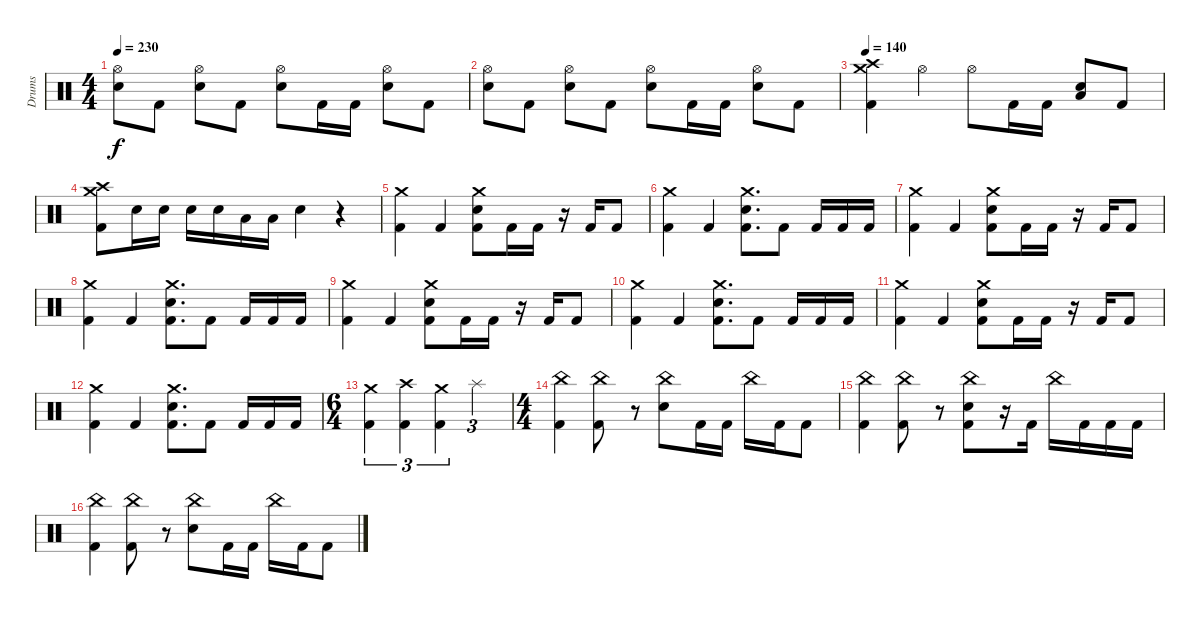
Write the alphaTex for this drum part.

\track ("Drums" "Drums") {instrument percussion}
\staff {score}
\articulation defaults
\ts (4 4)
\tempo 230
\clef neutral
\ks c
("Hi-Hat (open)" "Electric Snare (hit)").8{dy f} "Kick (hit) 2".8 ("Hi-Hat (open)" "Electric Snare (hit)").8 "Kick (hit) 2".8 ("Hi-Hat (open)" "Electric Snare (hit)").8 "Kick (hit) 2".16 "Kick (hit) 2".16 ("Hi-Hat (open)" "Electric Snare (hit)").8 "Kick (hit) 2".8 |
("Hi-Hat (open)" "Electric Snare (hit)").8 "Kick (hit) 2".8 ("Hi-Hat (open)" "Electric Snare (hit)").8 "Kick (hit) 2".8 ("Hi-Hat (open)" "Electric Snare (hit)").8 "Kick (hit) 2".16 "Kick (hit) 2".16 ("Hi-Hat (open)" "Electric Snare (hit)").8 "Kick (hit) 2".8 |
\tempo 140
("Crash medium (hit)" "Crash high (hit)" "Kick (hit) 2").4 "Hi-Hat (open)".4 "Hi-Hat (open)".8 "Kick (hit) 2".16 "Kick (hit) 2".16 ("Low Tom (hit)" "Electric Snare (hit)").8 "Kick (hit) 2".8 |
("Crash medium (hit)" "Crash high (hit)" "Kick (hit) 2").8 "Electric Snare (hit)".16 "Electric Snare (hit)".16 "Electric Snare (hit)".16 "Electric Snare (hit)".16 "Low Tom (hit)".16 "Low Tom (hit)".16 "Electric Snare (hit)".4 r.4 |
("Crash medium (hit)" "Kick (hit) 2").4 "Kick (hit) 2".4 ("Crash medium (hit)" "Electric Snare (hit)" "Kick (hit) 2").8 "Kick (hit) 2".16 "Kick (hit) 2".16 r.16 "Kick (hit) 2".16 "Kick (hit) 2".8 |
("Crash medium (hit)" "Kick (hit) 2").4 "Kick (hit) 2".4 ("Crash medium (hit)" "Electric Snare (hit)" "Kick (hit) 2").8{d} "Kick (hit) 2".8 "Kick (hit) 2".16 "Kick (hit) 2".16 "Kick (hit) 2".16 |
("Crash medium (hit)" "Kick (hit) 2").4 "Kick (hit) 2".4 ("Crash medium (hit)" "Electric Snare (hit)" "Kick (hit) 2").8 "Kick (hit) 2".16 "Kick (hit) 2".16 r.16 "Kick (hit) 2".16 "Kick (hit) 2".8 |
("Crash medium (hit)" "Kick (hit) 2").4 "Kick (hit) 2".4 ("Crash medium (hit)" "Electric Snare (hit)" "Kick (hit) 2").8{d} "Kick (hit) 2".8 "Kick (hit) 2".16 "Kick (hit) 2".16 "Kick (hit) 2".16 |
("Crash medium (hit)" "Kick (hit) 2").4 "Kick (hit) 2".4 ("Crash medium (hit)" "Electric Snare (hit)" "Kick (hit) 2").8 "Kick (hit) 2".16 "Kick (hit) 2".16 r.16 "Kick (hit) 2".16 "Kick (hit) 2".8 |
("Crash medium (hit)" "Kick (hit) 2").4 "Kick (hit) 2".4 ("Crash medium (hit)" "Electric Snare (hit)" "Kick (hit) 2").8{d} "Kick (hit) 2".8 "Kick (hit) 2".16 "Kick (hit) 2".16 "Kick (hit) 2".16 |
("Crash medium (hit)" "Kick (hit) 2").4 "Kick (hit) 2".4 ("Crash medium (hit)" "Electric Snare (hit)" "Kick (hit) 2").8 "Kick (hit) 2".16 "Kick (hit) 2".16 r.16 "Kick (hit) 2".16 "Kick (hit) 2".8 |
("Crash medium (hit)" "Kick (hit) 2").4 "Kick (hit) 2".4 ("Crash medium (hit)" "Electric Snare (hit)" "Kick (hit) 2").8{d} "Kick (hit) 2".8 "Kick (hit) 2".16 "Kick (hit) 2".16 "Kick (hit) 2".16 |
\ts (6 4)
("Crash medium (hit)" "Kick (hit) 2").4{tu (3 2)} ("Crash high (hit)" "Kick (hit) 2").4{tu (3 2)} ("Crash medium (hit)" "Kick (hit) 2").4{tu (3 2)} "Splash (hit)".4{tu (3 2)} |
\ts (4 4)
("China (hit)" "Kick (hit) 2").4 ("China (hit)" "Kick (hit) 2").8 r.8 ("China (hit)" "Electric Snare (hit)").8 "Kick (hit) 2".16 "Kick (hit) 2".16 "China (hit)".16 "Kick (hit) 2".16 "Kick (hit) 2".8 |
("China (hit)" "Kick (hit) 2").4 ("China (hit)" "Kick (hit) 2").8 r.8 ("China (hit)" "Electric Snare (hit)" "Kick (hit) 2").8 r.16 "Kick (hit) 2".16 "China (hit)".16 "Kick (hit) 2".16 "Kick (hit) 2".16 "Kick (hit) 2".16 |
("China (hit)" "Kick (hit) 2").4 ("China (hit)" "Kick (hit) 2").8 r.8 ("China (hit)" "Electric Snare (hit)").8 "Kick (hit) 2".16 "Kick (hit) 2".16 "China (hit)".16 "Kick (hit) 2".16 "Kick (hit) 2".8
